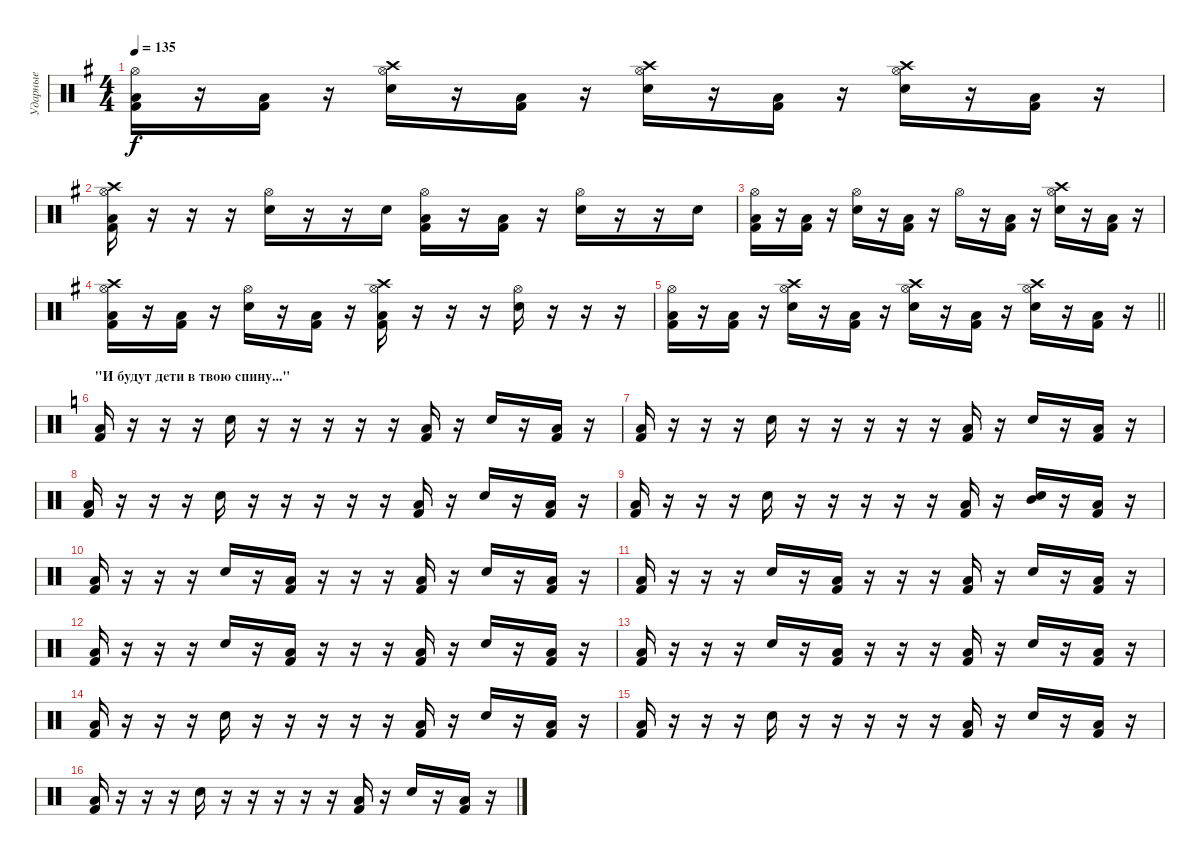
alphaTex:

\track ("Ударные" "Ударные") {instrument percussion}
\staff {score}
\articulation defaults
\ts (4 4)
\tempo 135
\clef neutral
\ks eminor
("Hi-Hat (open)" "Low Floor Tom (hit)" "Kick (hit) 2").16{dy f} r.16 ("Low Floor Tom (hit)" "Kick (hit) 2").16 r.16 ("Crash high (hit)" "Hi-Hat (open)" "Electric Snare (hit)").16 r.16 ("Low Floor Tom (hit)" "Kick (hit) 2").16 r.16 ("Crash high (hit)" "Hi-Hat (open)" "Electric Snare (hit)").16 r.16 ("Low Floor Tom (hit)" "Kick (hit) 2").16 r.16 ("Crash high (hit)" "Hi-Hat (open)" "Electric Snare (hit)").16 r.16 ("Low Floor Tom (hit)" "Kick (hit) 2").16 r.16 |
("Crash high (hit)" "Hi-Hat (open)" "Low Floor Tom (hit)" "Kick (hit) 2").16 r.16 r.16 r.16 ("Hi-Hat (open)" "Electric Snare (hit)").16 r.16 r.16 "Electric Snare (hit)".16 ("Hi-Hat (open)" "Low Floor Tom (hit)" "Kick (hit) 2").16 r.16 ("Low Floor Tom (hit)" "Kick (hit) 2").16 r.16 ("Hi-Hat (open)" "Electric Snare (hit)").16 r.16 r.16 "Electric Snare (hit)".16 |
("Hi-Hat (open)" "Low Floor Tom (hit)" "Kick (hit) 2").16 r.16 ("Low Floor Tom (hit)" "Kick (hit) 2").16 r.16 ("Hi-Hat (open)" "Electric Snare (hit)").16 r.16 ("Low Floor Tom (hit)" "Kick (hit) 2").16 r.16 "Hi-Hat (open)".16 r.16 ("Low Floor Tom (hit)" "Kick (hit) 2").16 r.16 ("Crash high (hit)" "Hi-Hat (open)" "Electric Snare (hit)").16 r.16 ("Low Floor Tom (hit)" "Kick (hit) 2").16 r.16 |
("Crash high (hit)" "Hi-Hat (open)" "Low Floor Tom (hit)" "Kick (hit) 2").16 r.16 ("Low Floor Tom (hit)" "Kick (hit) 2").16 r.16 ("Hi-Hat (open)" "Electric Snare (hit)").16 r.16 ("Low Floor Tom (hit)" "Kick (hit) 2").16 r.16 ("Crash high (hit)" "Hi-Hat (open)" "Low Floor Tom (hit)" "Kick (hit) 2").16 r.16 r.16 r.16 ("Hi-Hat (open)" "Electric Snare (hit)").16 r.16 r.16 r.16 |
\barLineRight lightlight
("Hi-Hat (open)" "Low Floor Tom (hit)" "Kick (hit) 2").16 r.16 ("Low Floor Tom (hit)" "Kick (hit) 2").16 r.16 ("Crash high (hit)" "Hi-Hat (open)" "Electric Snare (hit)").16 r.16 ("Low Floor Tom (hit)" "Kick (hit) 2").16 r.16 ("Crash high (hit)" "Hi-Hat (open)" "Electric Snare (hit)").16 r.16 ("Low Floor Tom (hit)" "Kick (hit) 2").16 r.16 ("Crash high (hit)" "Hi-Hat (open)" "Electric Snare (hit)").16 r.16 ("Low Floor Tom (hit)" "Kick (hit) 2").16 r.16 |
\section ("" "\"И будут дети в твою спину...\"")
\ks c
("Low Floor Tom (hit)" "Kick (hit) 2").16 r.16 r.16 r.16 "Electric Snare (hit)".16 r.16 r.16 r.16 r.16 r.16 ("Low Floor Tom (hit)" "Kick (hit) 2").16 r.16 "Electric Snare (hit)".16 r.16 ("Low Floor Tom (hit)" "Kick (hit) 2").16 r.16 |
("Low Floor Tom (hit)" "Kick (hit) 2").16 r.16 r.16 r.16 "Electric Snare (hit)".16 r.16 r.16 r.16 r.16 r.16 ("Low Floor Tom (hit)" "Kick (hit) 2").16 r.16 "Electric Snare (hit)".16 r.16 ("Low Floor Tom (hit)" "Kick (hit) 2").16 r.16 |
("Low Floor Tom (hit)" "Kick (hit) 2").16 r.16 r.16 r.16 "Electric Snare (hit)".16 r.16 r.16 r.16 r.16 r.16 ("Low Floor Tom (hit)" "Kick (hit) 2").16 r.16 "Electric Snare (hit)".16 r.16 ("Low Floor Tom (hit)" "Kick (hit) 2").16 r.16 |
("Low Floor Tom (hit)" "Kick (hit) 2").16 r.16 r.16 r.16 "Electric Snare (hit)".16 r.16 r.16 r.16 r.16 r.16 ("Low Floor Tom (hit)" "Kick (hit) 2").16 r.16 ("Electric Snare (hit)" "Mid Tom (hit)").16 r.16 ("Low Floor Tom (hit)" "Kick (hit) 2").16 r.16 |
("Low Floor Tom (hit)" "Kick (hit) 2").16 r.16 r.16 r.16 "Electric Snare (hit)".16 r.16 ("Low Floor Tom (hit)" "Kick (hit) 2").16 r.16 r.16 r.16 ("Low Floor Tom (hit)" "Kick (hit) 2").16 r.16 "Electric Snare (hit)".16 r.16 ("Low Floor Tom (hit)" "Kick (hit) 2").16 r.16 |
("Low Floor Tom (hit)" "Kick (hit) 2").16 r.16 r.16 r.16 "Electric Snare (hit)".16 r.16 ("Low Floor Tom (hit)" "Kick (hit) 2").16 r.16 r.16 r.16 ("Low Floor Tom (hit)" "Kick (hit) 2").16 r.16 "Electric Snare (hit)".16 r.16 ("Low Floor Tom (hit)" "Kick (hit) 2").16 r.16 |
("Low Floor Tom (hit)" "Kick (hit) 2").16 r.16 r.16 r.16 "Electric Snare (hit)".16 r.16 ("Low Floor Tom (hit)" "Kick (hit) 2").16 r.16 r.16 r.16 ("Low Floor Tom (hit)" "Kick (hit) 2").16 r.16 "Electric Snare (hit)".16 r.16 ("Low Floor Tom (hit)" "Kick (hit) 2").16 r.16 |
("Low Floor Tom (hit)" "Kick (hit) 2").16 r.16 r.16 r.16 "Electric Snare (hit)".16 r.16 ("Low Floor Tom (hit)" "Kick (hit) 2").16 r.16 r.16 r.16 ("Low Floor Tom (hit)" "Kick (hit) 2").16 r.16 "Electric Snare (hit)".16 r.16 ("Low Floor Tom (hit)" "Kick (hit) 2").16 r.16 |
("Low Floor Tom (hit)" "Kick (hit) 2").16 r.16 r.16 r.16 "Electric Snare (hit)".16 r.16 r.16 r.16 r.16 r.16 ("Low Floor Tom (hit)" "Kick (hit) 2").16 r.16 "Electric Snare (hit)".16 r.16 ("Low Floor Tom (hit)" "Kick (hit) 2").16 r.16 |
("Low Floor Tom (hit)" "Kick (hit) 2").16 r.16 r.16 r.16 "Electric Snare (hit)".16 r.16 r.16 r.16 r.16 r.16 ("Low Floor Tom (hit)" "Kick (hit) 2").16 r.16 "Electric Snare (hit)".16 r.16 ("Low Floor Tom (hit)" "Kick (hit) 2").16 r.16 |
("Low Floor Tom (hit)" "Kick (hit) 2").16 r.16 r.16 r.16 "Electric Snare (hit)".16 r.16 r.16 r.16 r.16 r.16 ("Low Floor Tom (hit)" "Kick (hit) 2").16 r.16 "Electric Snare (hit)".16 r.16 ("Low Floor Tom (hit)" "Kick (hit) 2").16 r.16
